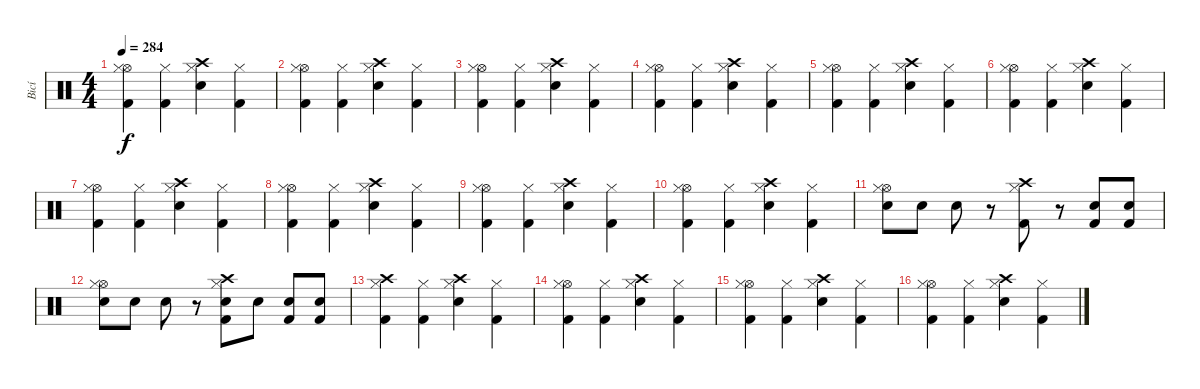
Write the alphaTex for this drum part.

\track ("Bicí" "Bicí") {instrument percussion}
\staff {score}
\articulation defaults
\ts (4 4)
\tempo 284
\clef neutral
\ks c
("Hi-Hat (open)" "Hi-Hat (closed)" "Kick (hit) 2").4{dy f} ("Hi-Hat (closed)" "Kick (hit) 2").4 ("Crash high (hit)" "Hi-Hat (closed)" "Electric Snare (hit)").4 ("Hi-Hat (closed)" "Kick (hit) 2").4 |
("Hi-Hat (open)" "Hi-Hat (closed)" "Kick (hit) 2").4 ("Hi-Hat (closed)" "Kick (hit) 2").4 ("Crash high (hit)" "Hi-Hat (closed)" "Electric Snare (hit)").4 ("Hi-Hat (closed)" "Kick (hit) 2").4 |
("Hi-Hat (open)" "Hi-Hat (closed)" "Kick (hit) 2").4 ("Hi-Hat (closed)" "Kick (hit) 2").4 ("Crash high (hit)" "Hi-Hat (closed)" "Electric Snare (hit)").4 ("Hi-Hat (closed)" "Kick (hit) 2").4 |
("Hi-Hat (open)" "Hi-Hat (closed)" "Kick (hit) 2").4 ("Hi-Hat (closed)" "Kick (hit) 2").4 ("Crash high (hit)" "Hi-Hat (closed)" "Electric Snare (hit)").4 ("Hi-Hat (closed)" "Kick (hit) 2").4 |
("Hi-Hat (open)" "Hi-Hat (closed)" "Kick (hit) 2").4 ("Hi-Hat (closed)" "Kick (hit) 2").4 ("Crash high (hit)" "Hi-Hat (closed)" "Electric Snare (hit)").4 ("Hi-Hat (closed)" "Kick (hit) 2").4 |
("Hi-Hat (open)" "Hi-Hat (closed)" "Kick (hit) 2").4 ("Hi-Hat (closed)" "Kick (hit) 2").4 ("Crash high (hit)" "Hi-Hat (closed)" "Electric Snare (hit)").4 ("Hi-Hat (closed)" "Kick (hit) 2").4 |
("Hi-Hat (open)" "Hi-Hat (closed)" "Kick (hit) 2").4 ("Hi-Hat (closed)" "Kick (hit) 2").4 ("Crash high (hit)" "Hi-Hat (closed)" "Electric Snare (hit)").4 ("Hi-Hat (closed)" "Kick (hit) 2").4 |
("Hi-Hat (open)" "Hi-Hat (closed)" "Kick (hit) 2").4 ("Hi-Hat (closed)" "Kick (hit) 2").4 ("Crash high (hit)" "Hi-Hat (closed)" "Electric Snare (hit)").4 ("Hi-Hat (closed)" "Kick (hit) 2").4 |
("Hi-Hat (open)" "Hi-Hat (closed)" "Kick (hit) 2").4 ("Hi-Hat (closed)" "Kick (hit) 2").4 ("Crash high (hit)" "Hi-Hat (closed)" "Electric Snare (hit)").4 ("Hi-Hat (closed)" "Kick (hit) 2").4 |
("Hi-Hat (open)" "Hi-Hat (closed)" "Kick (hit) 2").4 ("Hi-Hat (closed)" "Kick (hit) 2").4 ("Crash high (hit)" "Hi-Hat (closed)" "Electric Snare (hit)").4 ("Hi-Hat (closed)" "Kick (hit) 2").4 |
("Hi-Hat (open)" "Hi-Hat (closed)" "Electric Snare (hit)").8 "Electric Snare (hit)".8 "Electric Snare (hit)".8 r.8 ("Crash high (hit)" "Hi-Hat (closed)" "Kick (hit) 2").8 r.8 ("Electric Snare (hit)" "Kick (hit) 2").8 ("Electric Snare (hit)" "Kick (hit) 2").8 |
("Hi-Hat (open)" "Hi-Hat (closed)" "Electric Snare (hit)").8 "Electric Snare (hit)".8 "Electric Snare (hit)".8 r.8 ("Crash high (hit)" "Hi-Hat (closed)" "Electric Snare (hit)" "Kick (hit) 2").8 "Electric Snare (hit)".8 ("Electric Snare (hit)" "Kick (hit) 2").8 ("Electric Snare (hit)" "Kick (hit) 2").8 |
("Crash high (hit)" "Hi-Hat (closed)" "Kick (hit) 2").4 ("Hi-Hat (closed)" "Kick (hit) 2").4 ("Crash high (hit)" "Hi-Hat (closed)" "Electric Snare (hit)").4 ("Hi-Hat (closed)" "Kick (hit) 2").4 |
("Hi-Hat (open)" "Hi-Hat (closed)" "Kick (hit) 2").4 ("Hi-Hat (closed)" "Kick (hit) 2").4 ("Crash high (hit)" "Hi-Hat (closed)" "Electric Snare (hit)").4 ("Hi-Hat (closed)" "Kick (hit) 2").4 |
("Hi-Hat (open)" "Hi-Hat (closed)" "Kick (hit) 2").4 ("Hi-Hat (closed)" "Kick (hit) 2").4 ("Crash high (hit)" "Hi-Hat (closed)" "Electric Snare (hit)").4 ("Hi-Hat (closed)" "Kick (hit) 2").4 |
("Hi-Hat (open)" "Hi-Hat (closed)" "Kick (hit) 2").4 ("Hi-Hat (closed)" "Kick (hit) 2").4 ("Crash high (hit)" "Hi-Hat (closed)" "Electric Snare (hit)").4 ("Hi-Hat (closed)" "Kick (hit) 2").4
